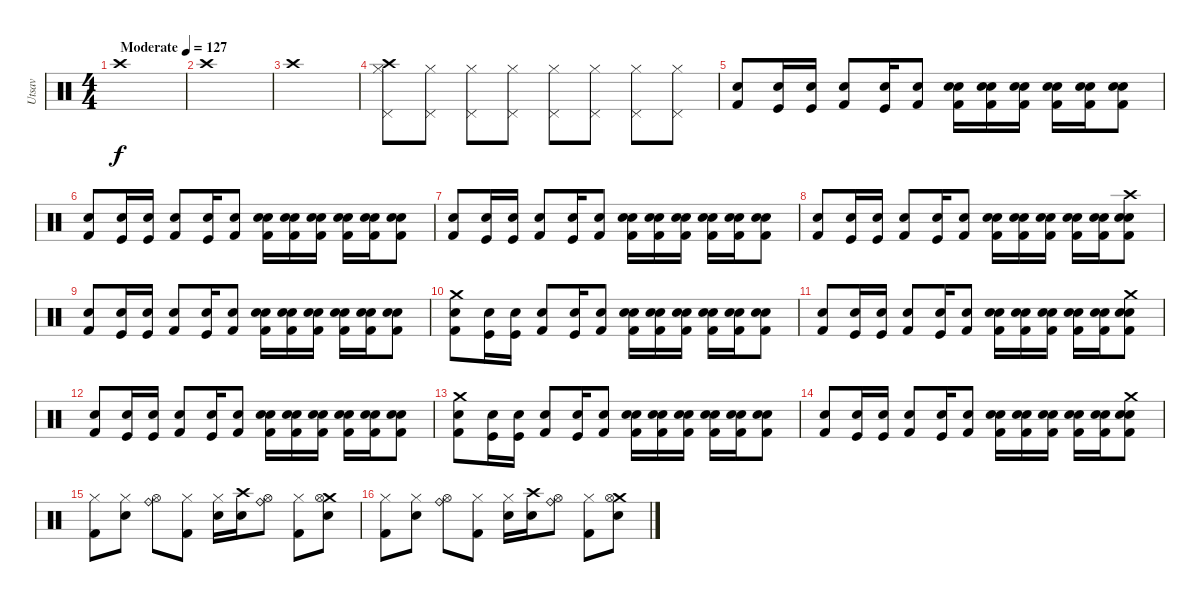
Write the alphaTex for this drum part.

\track ("Utsav" "Utsav") {instrument percussion}
\staff {score}
\articulation defaults
\ts (4 4)
\tempo (127 "Moderate")
\clef neutral
\ks c "Crash high (hit)".1{dy f}
|
"Crash high (hit)".1 |
"Crash high (hit)".1 |
("Pedal Hi-Hat (hit)" "Crash high (hit)" "Hi-Hat (closed)").8{volume 16} ("Pedal Hi-Hat (hit)" "Hi-Hat (closed)").8 ("Pedal Hi-Hat (hit)" "Hi-Hat (closed)").8 ("Pedal Hi-Hat (hit)" "Hi-Hat (closed)").8 ("Pedal Hi-Hat (hit)" "Hi-Hat (closed)").8 ("Pedal Hi-Hat (hit)" "Hi-Hat (closed)").8 ("Pedal Hi-Hat (hit)" "Hi-Hat (closed)").8 ("Pedal Hi-Hat (hit)" "Hi-Hat (closed)").8 |
("Electric Snare (hit)" "Kick (hit) 2").8 ("Kick (hit)" "Snare (hit) 2").16 ("Kick (hit)" "Snare (hit) 2").16 ("Electric Snare (hit)" "Kick (hit) 2").8 ("Kick (hit)" "Snare (hit) 2").16 ("Electric Snare (hit)" "Kick (hit) 2").8 ("Electric Snare (hit)" "Snare (hit) 2" "Kick (hit) 2").16 ("Electric Snare (hit)" "Snare (hit) 2" "Kick (hit) 2").16 ("Electric Snare (hit)" "Snare (hit) 2" "Kick (hit) 2").16 ("Electric Snare (hit)" "Snare (hit) 2" "Kick (hit) 2").16 ("Electric Snare (hit)" "Snare (hit) 2" "Kick (hit) 2").16 ("Electric Snare (hit)" "Snare (hit) 2" "Kick (hit) 2").8 |
("Electric Snare (hit)" "Kick (hit) 2").8 ("Kick (hit)" "Snare (hit) 2").16 ("Kick (hit)" "Snare (hit) 2").16 ("Electric Snare (hit)" "Kick (hit) 2").8 ("Kick (hit)" "Snare (hit) 2").16 ("Electric Snare (hit)" "Kick (hit) 2").8 ("Electric Snare (hit)" "Snare (hit) 2" "Kick (hit) 2").16 ("Electric Snare (hit)" "Snare (hit) 2" "Kick (hit) 2").16 ("Electric Snare (hit)" "Snare (hit) 2" "Kick (hit) 2").16 ("Electric Snare (hit)" "Snare (hit) 2" "Kick (hit) 2").16 ("Electric Snare (hit)" "Snare (hit) 2" "Kick (hit) 2").16 ("Electric Snare (hit)" "Snare (hit) 2" "Kick (hit) 2").8 |
("Electric Snare (hit)" "Kick (hit) 2").8 ("Kick (hit)" "Snare (hit) 2").16 ("Kick (hit)" "Snare (hit) 2").16 ("Electric Snare (hit)" "Kick (hit) 2").8 ("Kick (hit)" "Snare (hit) 2").16 ("Electric Snare (hit)" "Kick (hit) 2").8 ("Electric Snare (hit)" "Snare (hit) 2" "Kick (hit) 2").16 ("Electric Snare (hit)" "Snare (hit) 2" "Kick (hit) 2").16 ("Electric Snare (hit)" "Snare (hit) 2" "Kick (hit) 2").16 ("Electric Snare (hit)" "Snare (hit) 2" "Kick (hit) 2").16 ("Electric Snare (hit)" "Snare (hit) 2" "Kick (hit) 2").16 ("Electric Snare (hit)" "Snare (hit) 2" "Kick (hit) 2").8 |
("Electric Snare (hit)" "Kick (hit) 2").8 ("Kick (hit)" "Snare (hit) 2").16 ("Kick (hit)" "Snare (hit) 2").16 ("Electric Snare (hit)" "Kick (hit) 2").8 ("Kick (hit)" "Snare (hit) 2").16 ("Electric Snare (hit)" "Kick (hit) 2").8 ("Electric Snare (hit)" "Snare (hit) 2" "Kick (hit) 2").16 ("Electric Snare (hit)" "Snare (hit) 2" "Kick (hit) 2").16 ("Electric Snare (hit)" "Snare (hit) 2" "Kick (hit) 2").16 ("Electric Snare (hit)" "Snare (hit) 2" "Kick (hit) 2").16 ("Electric Snare (hit)" "Snare (hit) 2" "Kick (hit) 2").16 ("Crash high (hit)" "Electric Snare (hit)" "Snare (hit) 2" "Kick (hit) 2").8 |
("Electric Snare (hit)" "Kick (hit) 2").8 ("Kick (hit)" "Snare (hit) 2").16 ("Kick (hit)" "Snare (hit) 2").16 ("Electric Snare (hit)" "Kick (hit) 2").8 ("Kick (hit)" "Snare (hit) 2").16 ("Electric Snare (hit)" "Kick (hit) 2").8 ("Electric Snare (hit)" "Snare (hit) 2" "Kick (hit) 2").16 ("Electric Snare (hit)" "Snare (hit) 2" "Kick (hit) 2").16 ("Electric Snare (hit)" "Snare (hit) 2" "Kick (hit) 2").16 ("Electric Snare (hit)" "Snare (hit) 2" "Kick (hit) 2").16 ("Electric Snare (hit)" "Snare (hit) 2" "Kick (hit) 2").16 ("Electric Snare (hit)" "Snare (hit) 2" "Kick (hit) 2").8 |
("Electric Snare (hit)" "Kick (hit) 2" "Crash medium (hit)").8 ("Kick (hit)" "Snare (hit) 2").16 ("Kick (hit)" "Snare (hit) 2").16 ("Electric Snare (hit)" "Kick (hit) 2").8 ("Kick (hit)" "Snare (hit) 2").16 ("Electric Snare (hit)" "Kick (hit) 2").8 ("Electric Snare (hit)" "Snare (hit) 2" "Kick (hit) 2").16 ("Electric Snare (hit)" "Snare (hit) 2" "Kick (hit) 2").16 ("Electric Snare (hit)" "Snare (hit) 2" "Kick (hit) 2").16 ("Electric Snare (hit)" "Snare (hit) 2" "Kick (hit) 2").16 ("Electric Snare (hit)" "Snare (hit) 2" "Kick (hit) 2").16 ("Electric Snare (hit)" "Snare (hit) 2" "Kick (hit) 2").8 |
("Electric Snare (hit)" "Kick (hit) 2").8 ("Kick (hit)" "Snare (hit) 2").16 ("Kick (hit)" "Snare (hit) 2").16 ("Electric Snare (hit)" "Kick (hit) 2").8 ("Kick (hit)" "Snare (hit) 2").16 ("Electric Snare (hit)" "Kick (hit) 2").8 ("Electric Snare (hit)" "Snare (hit) 2" "Kick (hit) 2").16 ("Electric Snare (hit)" "Snare (hit) 2" "Kick (hit) 2").16 ("Electric Snare (hit)" "Snare (hit) 2" "Kick (hit) 2").16 ("Electric Snare (hit)" "Snare (hit) 2" "Kick (hit) 2").16 ("Electric Snare (hit)" "Snare (hit) 2" "Kick (hit) 2").16 ("Crash medium (hit)" "Electric Snare (hit)" "Snare (hit) 2" "Kick (hit) 2").8 |
("Electric Snare (hit)" "Kick (hit) 2").8 ("Kick (hit)" "Snare (hit) 2").16 ("Kick (hit)" "Snare (hit) 2").16 ("Electric Snare (hit)" "Kick (hit) 2").8 ("Kick (hit)" "Snare (hit) 2").16 ("Electric Snare (hit)" "Kick (hit) 2").8 ("Electric Snare (hit)" "Snare (hit) 2" "Kick (hit) 2").16 ("Electric Snare (hit)" "Snare (hit) 2" "Kick (hit) 2").16 ("Electric Snare (hit)" "Snare (hit) 2" "Kick (hit) 2").16 ("Electric Snare (hit)" "Snare (hit) 2" "Kick (hit) 2").16 ("Electric Snare (hit)" "Snare (hit) 2" "Kick (hit) 2").16 ("Electric Snare (hit)" "Snare (hit) 2" "Kick (hit) 2").8 |
("Electric Snare (hit)" "Kick (hit) 2" "Crash medium (hit)").8 ("Kick (hit)" "Snare (hit) 2").16 ("Kick (hit)" "Snare (hit) 2").16 ("Electric Snare (hit)" "Kick (hit) 2").8 ("Kick (hit)" "Snare (hit) 2").16 ("Electric Snare (hit)" "Kick (hit) 2").8 ("Electric Snare (hit)" "Snare (hit) 2" "Kick (hit) 2").16 ("Electric Snare (hit)" "Snare (hit) 2" "Kick (hit) 2").16 ("Electric Snare (hit)" "Snare (hit) 2" "Kick (hit) 2").16 ("Electric Snare (hit)" "Snare (hit) 2" "Kick (hit) 2").16 ("Electric Snare (hit)" "Snare (hit) 2" "Kick (hit) 2").16 ("Electric Snare (hit)" "Snare (hit) 2" "Kick (hit) 2").8 |
("Electric Snare (hit)" "Kick (hit) 2").8 ("Kick (hit)" "Snare (hit) 2").16 ("Kick (hit)" "Snare (hit) 2").16 ("Electric Snare (hit)" "Kick (hit) 2").8 ("Kick (hit)" "Snare (hit) 2").16 ("Electric Snare (hit)" "Kick (hit) 2").8 ("Electric Snare (hit)" "Snare (hit) 2" "Kick (hit) 2").16 ("Electric Snare (hit)" "Snare (hit) 2" "Kick (hit) 2").16 ("Electric Snare (hit)" "Snare (hit) 2" "Kick (hit) 2").16 ("Electric Snare (hit)" "Snare (hit) 2" "Kick (hit) 2").16 ("Electric Snare (hit)" "Snare (hit) 2" "Kick (hit) 2").16 ("Crash medium (hit)" "Electric Snare (hit)" "Snare (hit) 2" "Kick (hit) 2").8 |
("Hi-Hat (closed)" "Kick (hit) 2").8 ("Hi-Hat (closed)" "Snare (hit) 2").8 ("Ride (bell)" "Hi-Hat (open)").8 ("Hi-Hat (closed)" "Kick (hit) 2").8 ("Hi-Hat (closed)" "Snare (hit) 2").16 ("Crash high (hit)" "Snare (hit) 2").16 ("Ride (bell)" "Hi-Hat (open)").8 ("Hi-Hat (closed)" "Kick (hit) 2").8 ("Crash medium (hit)" "Hi-Hat (open)" "Snare (hit) 2").8 |
("Hi-Hat (closed)" "Kick (hit) 2").8 ("Hi-Hat (closed)" "Snare (hit) 2").8 ("Ride (bell)" "Hi-Hat (open)").8 ("Hi-Hat (closed)" "Kick (hit) 2").8 ("Hi-Hat (closed)" "Snare (hit) 2").16 ("Crash high (hit)" "Snare (hit) 2").16 ("Ride (bell)" "Hi-Hat (open)").8 ("Hi-Hat (closed)" "Kick (hit) 2").8 ("Crash medium (hit)" "Hi-Hat (open)" "Snare (hit) 2").8
